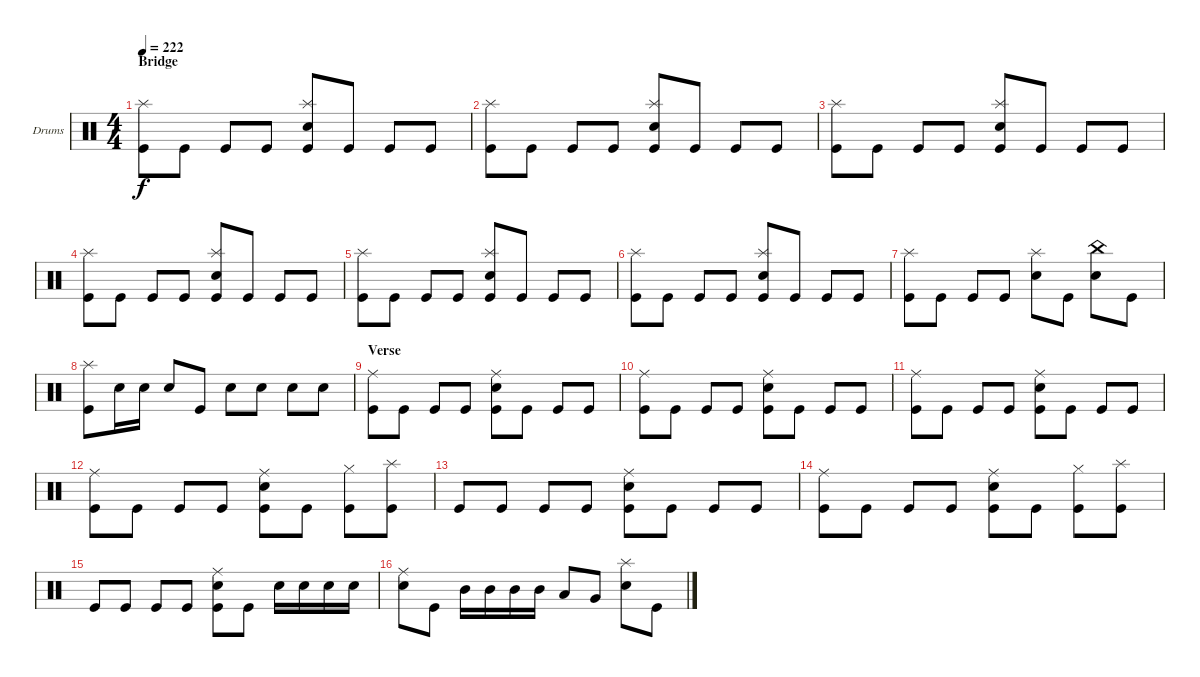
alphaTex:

\defaultSystemsLayout 4
\bracketExtendMode groupsimilarinstruments
\firstSystemTrackNameOrientation horizontal
\otherSystemsTrackNameOrientation horizontal
\track ("Drumkit" "Drums") {mute instrument percussion}
\staff {score}
\articulation defaults
\ts (4 4)
\section ("" "Bridge")
\tempo 222
\clef neutral
\ks c
("Kick (hit)" "Splash (hit)").8{dy f} "Kick (hit)".8 "Kick (hit)".8 "Kick (hit)".8 ("Kick (hit)" "Splash (hit)" "Snare (hit) 2").8 "Kick (hit)".8 "Kick (hit)".8 "Kick (hit)".8 |
("Kick (hit)" "Splash (hit)").8 "Kick (hit)".8 "Kick (hit)".8 "Kick (hit)".8 ("Kick (hit)" "Splash (hit)" "Snare (hit) 2").8 "Kick (hit)".8 "Kick (hit)".8 "Kick (hit)".8 |
("Kick (hit)" "Splash (hit)").8 "Kick (hit)".8 "Kick (hit)".8 "Kick (hit)".8 ("Kick (hit)" "Splash (hit)" "Snare (hit) 2").8 "Kick (hit)".8 "Kick (hit)".8 "Kick (hit)".8 |
("Kick (hit)" "Splash (hit)").8 "Kick (hit)".8 "Kick (hit)".8 "Kick (hit)".8 ("Kick (hit)" "Splash (hit)" "Snare (hit) 2").8 "Kick (hit)".8 "Kick (hit)".8 "Kick (hit)".8 |
("Kick (hit)" "Splash (hit)").8 "Kick (hit)".8 "Kick (hit)".8 "Kick (hit)".8 ("Kick (hit)" "Splash (hit)" "Snare (hit) 2").8 "Kick (hit)".8 "Kick (hit)".8 "Kick (hit)".8 |
("Kick (hit)" "Splash (hit)").8 "Kick (hit)".8 "Kick (hit)".8 "Kick (hit)".8 ("Kick (hit)" "Splash (hit)" "Snare (hit) 2").8 "Kick (hit)".8 "Kick (hit)".8 "Kick (hit)".8 |
("Kick (hit)" "Splash (hit)").8 "Kick (hit)".8 "Kick (hit)".8 "Kick (hit)".8 ("Splash (hit)" "Snare (hit) 2").8 "Kick (hit)".8 ("Snare (hit) 2" "China (hit)").8 "Kick (hit)".8 |
("Splash (hit)" "Kick (hit)").8 "Snare (hit) 2".16 "Snare (hit) 2".16 "Snare (hit) 2".8 "Kick (hit)".8 "Snare (hit) 2".8 "Snare (hit) 2".8 "Snare (hit) 2".8 "Snare (hit) 2".8 |
\section ("" "Verse")
("Kick (hit)" "Ride (middle)").8 "Kick (hit)".8 "Kick (hit)".8 "Kick (hit)".8 ("Kick (hit)" "Snare (hit) 2" "Ride (middle)").8 "Kick (hit)".8 "Kick (hit)".8 "Kick (hit)".8 |
("Kick (hit)" "Ride (middle)").8 "Kick (hit)".8 "Kick (hit)".8 "Kick (hit)".8 ("Kick (hit)" "Snare (hit) 2" "Ride (middle)").8 "Kick (hit)".8 "Kick (hit)".8 "Kick (hit)".8 |
("Kick (hit)" "Ride (middle)").8 "Kick (hit)".8 "Kick (hit)".8 "Kick (hit)".8 ("Kick (hit)" "Snare (hit) 2" "Ride (middle)").8 "Kick (hit)".8 "Kick (hit)".8 "Kick (hit)".8 |
("Kick (hit)" "Ride (middle)").8 "Kick (hit)".8 "Kick (hit)".8 "Kick (hit)".8 ("Kick (hit)" "Snare (hit) 2" "Ride (middle)").8 "Kick (hit)".8 ("Kick (hit)" "Hi-Hat (closed)").8 ("Kick (hit)" "Splash (hit)").8 |
"Kick (hit)".8 "Kick (hit)".8 "Kick (hit)".8 "Kick (hit)".8 ("Kick (hit)" "Snare (hit) 2" "Ride (middle)").8 "Kick (hit)".8 "Kick (hit)".8 "Kick (hit)".8 |
("Kick (hit)" "Ride (middle)").8 "Kick (hit)".8 "Kick (hit)".8 "Kick (hit)".8 ("Kick (hit)" "Snare (hit) 2" "Ride (middle)").8 "Kick (hit)".8 ("Kick (hit)" "Hi-Hat (closed)").8 ("Kick (hit)" "Splash (hit)").8 |
"Kick (hit)".8 "Kick (hit)".8 "Kick (hit)".8 "Kick (hit)".8 ("Kick (hit)" "Snare (hit) 2" "Ride (middle)").8 "Kick (hit)".8 "Snare (hit) 2".16 "Snare (hit) 2".16 "Snare (hit) 2".16 "Snare (hit) 2".16 |
("Snare (hit) 2" "Ride (middle)").8 "Kick (hit)".8 "Mid Tom (hit)".16 "Mid Tom (hit)".16 "Mid Tom (hit)".16 "Mid Tom (hit)".16 "Low Tom (hit)".8 "Very Low Tom (hit)".8 ("Splash (hit)" "Snare (hit) 2").8 "Kick (hit)".8
